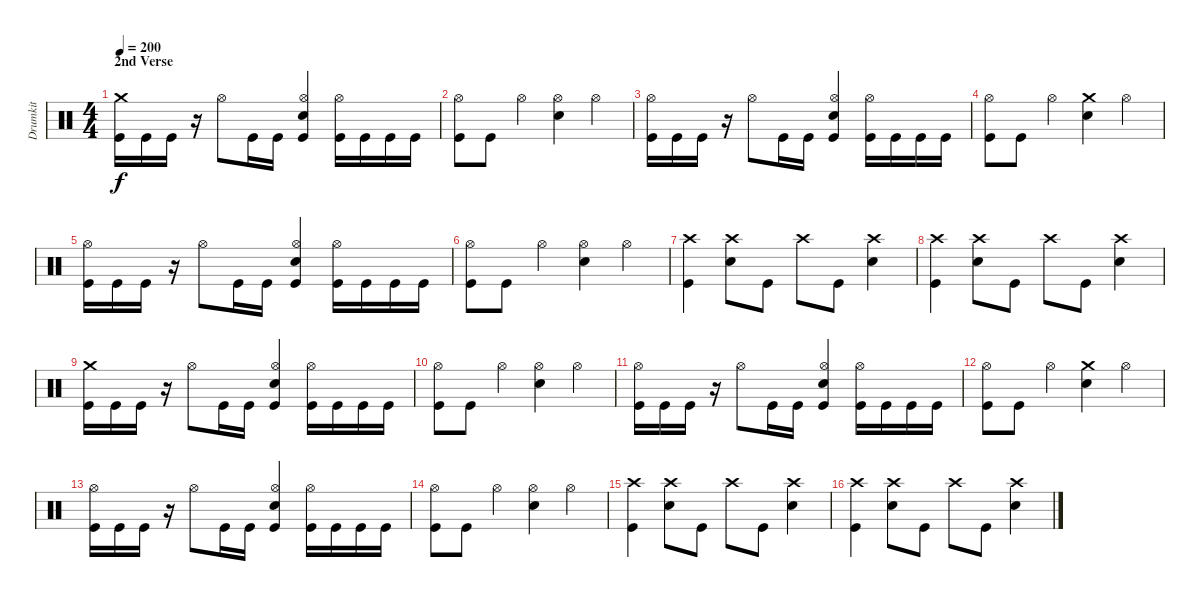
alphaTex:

\track ("Drumkit" "Drumkit") {instrument percussion}
\staff {score}
\articulation defaults
\ts (4 4)
\section ("" "2nd Verse")
\tempo 200
\clef neutral
\ks c
("Crash medium (hit)" "Kick (hit)").16{dy f} "Kick (hit)".16 "Kick (hit)".16 r.16 "Hi-Hat (open)".8 "Kick (hit)".16 "Kick (hit)".16 ("Hi-Hat (open)" "Snare (hit) 2" "Kick (hit)").4 ("Kick (hit)" "Hi-Hat (open)").16 "Kick (hit)".16 "Kick (hit)".16 "Kick (hit)".16 |
("Hi-Hat (open)" "Kick (hit)").8 "Kick (hit)".8 "Hi-Hat (open)".4 ("Hi-Hat (open)" "Snare (hit) 2").4 "Hi-Hat (open)".4 |
("Kick (hit)" "Hi-Hat (open)").16 "Kick (hit)".16 "Kick (hit)".16 r.16 "Hi-Hat (open)".8 "Kick (hit)".16 "Kick (hit)".16 ("Hi-Hat (open)" "Snare (hit) 2" "Kick (hit)").4 ("Kick (hit)" "Hi-Hat (open)").16 "Kick (hit)".16 "Kick (hit)".16 "Kick (hit)".16 |
("Hi-Hat (open)" "Kick (hit)").8 "Kick (hit)".8 "Hi-Hat (open)".4 ("Snare (hit) 2" "Crash medium (hit)").4 "Hi-Hat (open)".4 |
("Kick (hit)" "Hi-Hat (open)").16 "Kick (hit)".16 "Kick (hit)".16 r.16 "Hi-Hat (open)".8 "Kick (hit)".16 "Kick (hit)".16 ("Hi-Hat (open)" "Snare (hit) 2" "Kick (hit)").4 ("Kick (hit)" "Hi-Hat (open)").16 "Kick (hit)".16 "Kick (hit)".16 "Kick (hit)".16 |
("Hi-Hat (open)" "Kick (hit)").8 "Kick (hit)".8 "Hi-Hat (open)".4 ("Hi-Hat (open)" "Snare (hit) 2").4 "Hi-Hat (open)".4 |
("Kick (hit)" "Crash high (hit)").4 ("Snare (hit) 2" "Crash high (hit)").8 "Kick (hit)".8 "Crash high (hit)".8 "Kick (hit)".8 ("Snare (hit) 2" "Crash high (hit)").4 |
("Kick (hit)" "Crash high (hit)").4 ("Snare (hit) 2" "Crash high (hit)").8 "Kick (hit)".8 "Crash high (hit)".8 "Kick (hit)".8 ("Snare (hit) 2" "Crash high (hit)").4 |
("Crash medium (hit)" "Kick (hit)").16 "Kick (hit)".16 "Kick (hit)".16 r.16 "Hi-Hat (open)".8 "Kick (hit)".16 "Kick (hit)".16 ("Hi-Hat (open)" "Snare (hit) 2" "Kick (hit)").4 ("Kick (hit)" "Hi-Hat (open)").16 "Kick (hit)".16 "Kick (hit)".16 "Kick (hit)".16 |
("Hi-Hat (open)" "Kick (hit)").8 "Kick (hit)".8 "Hi-Hat (open)".4 ("Hi-Hat (open)" "Snare (hit) 2").4 "Hi-Hat (open)".4 |
("Kick (hit)" "Hi-Hat (open)").16 "Kick (hit)".16 "Kick (hit)".16 r.16 "Hi-Hat (open)".8 "Kick (hit)".16 "Kick (hit)".16 ("Hi-Hat (open)" "Snare (hit) 2" "Kick (hit)").4 ("Kick (hit)" "Hi-Hat (open)").16 "Kick (hit)".16 "Kick (hit)".16 "Kick (hit)".16 |
("Hi-Hat (open)" "Kick (hit)").8 "Kick (hit)".8 "Hi-Hat (open)".4 ("Snare (hit) 2" "Crash medium (hit)").4 "Hi-Hat (open)".4 |
("Kick (hit)" "Hi-Hat (open)").16 "Kick (hit)".16 "Kick (hit)".16 r.16 "Hi-Hat (open)".8 "Kick (hit)".16 "Kick (hit)".16 ("Hi-Hat (open)" "Snare (hit) 2" "Kick (hit)").4 ("Kick (hit)" "Hi-Hat (open)").16 "Kick (hit)".16 "Kick (hit)".16 "Kick (hit)".16 |
("Hi-Hat (open)" "Kick (hit)").8 "Kick (hit)".8 "Hi-Hat (open)".4 ("Hi-Hat (open)" "Snare (hit) 2").4 "Hi-Hat (open)".4 |
("Kick (hit)" "Crash high (hit)").4 ("Snare (hit) 2" "Crash high (hit)").8 "Kick (hit)".8 "Crash high (hit)".8 "Kick (hit)".8 ("Snare (hit) 2" "Crash high (hit)").4 |
("Kick (hit)" "Crash high (hit)").4 ("Snare (hit) 2" "Crash high (hit)").8 "Kick (hit)".8 "Crash high (hit)".8 "Kick (hit)".8 ("Snare (hit) 2" "Crash high (hit)").4
